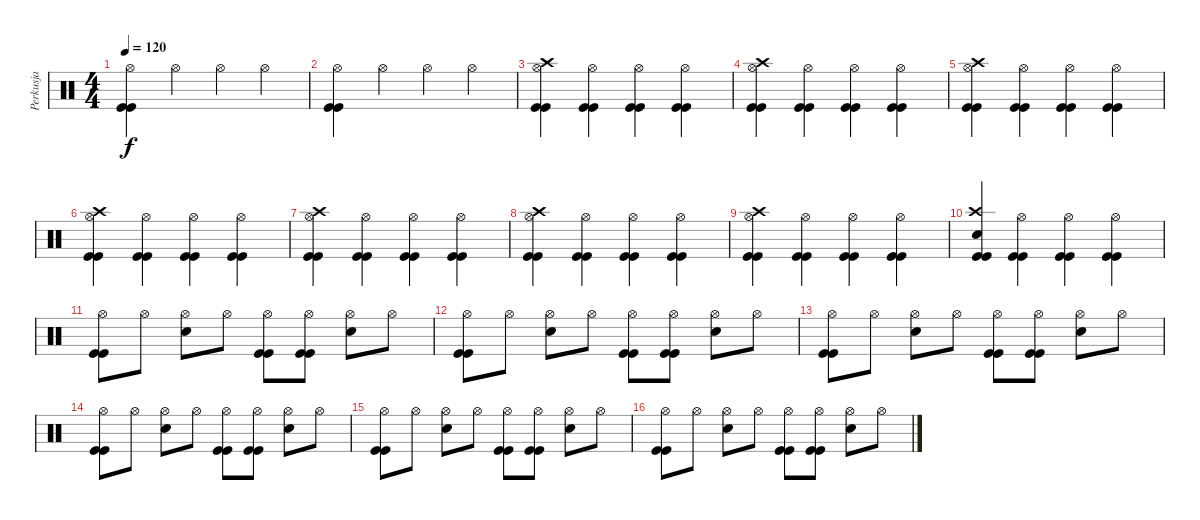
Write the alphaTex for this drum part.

\track ("Perkusja" "Perkusja") {instrument percussion}
\staff
\articulation defaults
\ts (4 4)
\tempo 120
\clef neutral
\ks c
("Hi-Hat (open)" "Kick (hit)" "Kick (hit)").4{dy f} "Hi-Hat (open)".4 "Hi-Hat (open)".4 "Hi-Hat (open)".4 |
("Hi-Hat (open)" "Kick (hit)" "Kick (hit)").4 "Hi-Hat (open)".4 "Hi-Hat (open)".4 "Hi-Hat (open)".4 |
("Crash high (hit)" "Hi-Hat (open)" "Kick (hit)" "Kick (hit)").4 ("Hi-Hat (open)" "Kick (hit)" "Kick (hit)").4 ("Hi-Hat (open)" "Kick (hit)" "Kick (hit)").4 ("Hi-Hat (open)" "Kick (hit)" "Kick (hit)").4 |
("Crash high (hit)" "Hi-Hat (open)" "Kick (hit)" "Kick (hit)").4 ("Hi-Hat (open)" "Kick (hit)" "Kick (hit)").4 ("Hi-Hat (open)" "Kick (hit)" "Kick (hit)").4 ("Hi-Hat (open)" "Kick (hit)" "Kick (hit)").4 |
("Crash high (hit)" "Hi-Hat (open)" "Kick (hit)" "Kick (hit)").4 ("Hi-Hat (open)" "Kick (hit)" "Kick (hit)").4 ("Hi-Hat (open)" "Kick (hit)" "Kick (hit)").4 ("Hi-Hat (open)" "Kick (hit)" "Kick (hit)").4 |
("Crash high (hit)" "Hi-Hat (open)" "Kick (hit)" "Kick (hit)").4 ("Hi-Hat (open)" "Kick (hit)" "Kick (hit)").4 ("Hi-Hat (open)" "Kick (hit)" "Kick (hit)").4 ("Hi-Hat (open)" "Kick (hit)" "Kick (hit)").4 |
("Crash high (hit)" "Hi-Hat (open)" "Kick (hit)" "Kick (hit)").4 ("Hi-Hat (open)" "Kick (hit)" "Kick (hit)").4 ("Hi-Hat (open)" "Kick (hit)" "Kick (hit)").4 ("Hi-Hat (open)" "Kick (hit)" "Kick (hit)").4 |
("Crash high (hit)" "Hi-Hat (open)" "Kick (hit)" "Kick (hit)").4 ("Hi-Hat (open)" "Kick (hit)" "Kick (hit)").4 ("Hi-Hat (open)" "Kick (hit)" "Kick (hit)").4 ("Hi-Hat (open)" "Kick (hit)" "Kick (hit)").4 |
("Crash high (hit)" "Hi-Hat (open)" "Kick (hit)" "Kick (hit)").4 ("Hi-Hat (open)" "Kick (hit)" "Kick (hit)").4 ("Hi-Hat (open)" "Kick (hit)" "Kick (hit)").4 ("Hi-Hat (open)" "Kick (hit)" "Kick (hit)").4 |
("Crash high (hit)" "Snare (hit) 2" "Kick (hit)" "Kick (hit)").4 ("Hi-Hat (open)" "Kick (hit)" "Kick (hit)").4 ("Hi-Hat (open)" "Kick (hit)" "Kick (hit)").4 ("Hi-Hat (open)" "Kick (hit)" "Kick (hit)").4 |
("Hi-Hat (open)" "Kick (hit)" "Kick (hit)").8 "Hi-Hat (open)".8 ("Hi-Hat (open)" "Snare (hit) 2").8 "Hi-Hat (open)".8 ("Hi-Hat (open)" "Kick (hit)" "Kick (hit)").8 ("Hi-Hat (open)" "Kick (hit)" "Kick (hit)").8 ("Hi-Hat (open)" "Snare (hit) 2").8 "Hi-Hat (open)".8 |
("Hi-Hat (open)" "Kick (hit)" "Kick (hit)").8 "Hi-Hat (open)".8 ("Hi-Hat (open)" "Snare (hit) 2").8 "Hi-Hat (open)".8 ("Hi-Hat (open)" "Kick (hit)" "Kick (hit)").8 ("Hi-Hat (open)" "Kick (hit)" "Kick (hit)").8 ("Hi-Hat (open)" "Snare (hit) 2").8 "Hi-Hat (open)".8 |
("Hi-Hat (open)" "Kick (hit)" "Kick (hit)").8 "Hi-Hat (open)".8 ("Hi-Hat (open)" "Snare (hit) 2").8 "Hi-Hat (open)".8 ("Hi-Hat (open)" "Kick (hit)" "Kick (hit)").8 ("Hi-Hat (open)" "Kick (hit)" "Kick (hit)").8 ("Hi-Hat (open)" "Snare (hit) 2").8 "Hi-Hat (open)".8 |
("Hi-Hat (open)" "Kick (hit)" "Kick (hit)").8 "Hi-Hat (open)".8 ("Hi-Hat (open)" "Snare (hit) 2").8 "Hi-Hat (open)".8 ("Hi-Hat (open)" "Kick (hit)" "Kick (hit)").8 ("Hi-Hat (open)" "Kick (hit)" "Kick (hit)").8 ("Hi-Hat (open)" "Snare (hit) 2").8 "Hi-Hat (open)".8 |
("Hi-Hat (open)" "Kick (hit)" "Kick (hit)").8 "Hi-Hat (open)".8 ("Hi-Hat (open)" "Snare (hit) 2").8 "Hi-Hat (open)".8 ("Hi-Hat (open)" "Kick (hit)" "Kick (hit)").8 ("Hi-Hat (open)" "Kick (hit)" "Kick (hit)").8 ("Hi-Hat (open)" "Snare (hit) 2").8 "Hi-Hat (open)".8 |
("Hi-Hat (open)" "Kick (hit)" "Kick (hit)").8 "Hi-Hat (open)".8 ("Hi-Hat (open)" "Snare (hit) 2").8 "Hi-Hat (open)".8 ("Hi-Hat (open)" "Kick (hit)" "Kick (hit)").8 ("Hi-Hat (open)" "Kick (hit)" "Kick (hit)").8 ("Hi-Hat (open)" "Snare (hit) 2").8 "Hi-Hat (open)".8
